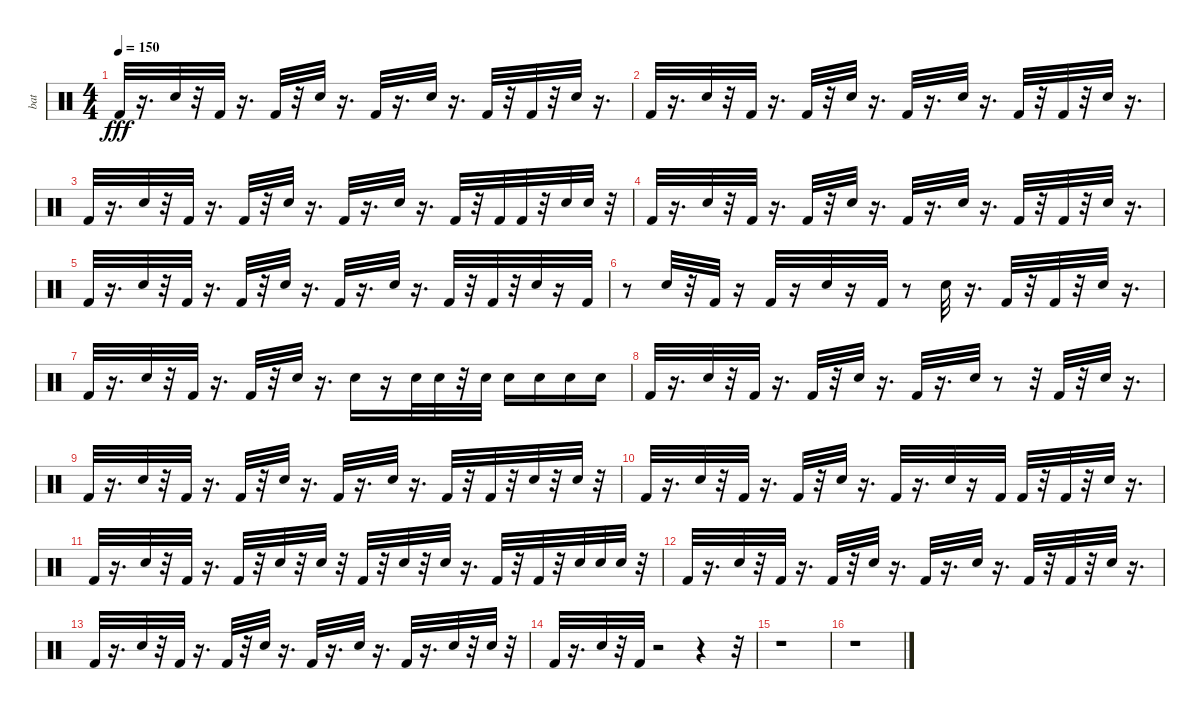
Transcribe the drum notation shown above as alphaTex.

\track ("bat" "bat") {instrument percussion}
\staff {score}
\articulation defaults
\ts (4 4)
\tempo 150
\clef neutral
\ks c "Kick (hit) 2".32{dy fff}
r.16{d} "Electric Snare (hit)".32 r.32 "Kick (hit) 2".32 r.16{d} "Kick (hit) 2".32 r.32 "Electric Snare (hit)".32 r.16{d} "Kick (hit) 2".32 r.16{d} "Electric Snare (hit)".32 r.16{d} "Kick (hit) 2".32 r.32 "Kick (hit) 2".32 r.32 "Electric Snare (hit)".32 r.16{d} |
"Kick (hit) 2".32 r.16{d} "Electric Snare (hit)".32 r.32 "Kick (hit) 2".32 r.16{d} "Kick (hit) 2".32 r.32 "Electric Snare (hit)".32 r.16{d} "Kick (hit) 2".32 r.16{d} "Electric Snare (hit)".32 r.16{d} "Kick (hit) 2".32 r.32 "Kick (hit) 2".32 r.32 "Electric Snare (hit)".32 r.16{d} |
"Kick (hit) 2".32 r.16{d} "Electric Snare (hit)".32 r.32 "Kick (hit) 2".32 r.16{d} "Kick (hit) 2".32 r.32 "Electric Snare (hit)".32 r.16{d} "Kick (hit) 2".32 r.16{d} "Electric Snare (hit)".32 r.16{d} "Kick (hit) 2".32 r.32 "Kick (hit) 2".32 "Kick (hit) 2".32 r.32 "Electric Snare (hit)".32 "Electric Snare (hit)".32 r.32 |
"Kick (hit) 2".32 r.16{d} "Electric Snare (hit)".32 r.32 "Kick (hit) 2".32 r.16{d} "Kick (hit) 2".32 r.32 "Electric Snare (hit)".32 r.16{d} "Kick (hit) 2".32 r.16{d} "Electric Snare (hit)".32 r.16{d} "Kick (hit) 2".32 r.32 "Kick (hit) 2".32 r.32 "Electric Snare (hit)".32 r.16{d} |
"Kick (hit) 2".32 r.16{d} "Electric Snare (hit)".32 r.32 "Kick (hit) 2".32 r.16{d} "Kick (hit) 2".32 r.32 "Electric Snare (hit)".32 r.16{d} "Kick (hit) 2".32 r.16{d} "Electric Snare (hit)".32 r.16{d} "Kick (hit) 2".32 r.32 "Kick (hit) 2".32 r.32 "Electric Snare (hit)".32 r.16 "Kick (hit) 2".32 |
r.8 "Electric Snare (hit)".32 r.32 "Kick (hit) 2".32 r.16 "Kick (hit) 2".32 r.16 "Electric Snare (hit)".32 r.16 "Kick (hit) 2".32 r.8 "Electric Snare (hit)".32 r.16{d} "Kick (hit) 2".32 r.32 "Kick (hit) 2".32 r.32 "Electric Snare (hit)".32 r.16{d} |
"Kick (hit) 2".32 r.16{d} "Electric Snare (hit)".32 r.32 "Kick (hit) 2".32 r.16{d} "Kick (hit) 2".32 r.32 "Electric Snare (hit)".32 r.16{d} "Electric Snare (hit)".16 r.16 "Electric Snare (hit)".32 "Electric Snare (hit)".32 r.32 "Electric Snare (hit)".32 "Electric Snare (hit)".16 "Electric Snare (hit)".16 "Electric Snare (hit)".16 "Electric Snare (hit)".16 |
"Kick (hit) 2".32 r.16{d} "Electric Snare (hit)".32 r.32 "Kick (hit) 2".32 r.16{d} "Kick (hit) 2".32 r.32 "Electric Snare (hit)".32 r.16{d} "Kick (hit) 2".32 r.16{d} "Electric Snare (hit)".32 r.8 r.32 "Kick (hit) 2".32 r.32 "Electric Snare (hit)".32 r.16{d} |
"Kick (hit) 2".32 r.16{d} "Electric Snare (hit)".32 r.32 "Kick (hit) 2".32 r.16{d} "Kick (hit) 2".32 r.32 "Electric Snare (hit)".32 r.16{d} "Kick (hit) 2".32 r.16{d} "Electric Snare (hit)".32 r.16{d} "Kick (hit) 2".32 r.32 "Kick (hit) 2".32 r.32 "Electric Snare (hit)".32 r.32 "Electric Snare (hit)".32 r.32 |
"Kick (hit) 2".32 r.16{d} "Electric Snare (hit)".32 r.32 "Kick (hit) 2".32 r.16{d} "Kick (hit) 2".32 r.32 "Electric Snare (hit)".32 r.16{d} "Kick (hit) 2".32 r.16{d} "Electric Snare (hit)".32 r.16 "Kick (hit) 2".32 "Kick (hit) 2".32 r.32 "Kick (hit) 2".32 r.32 "Electric Snare (hit)".32 r.16{d} |
"Kick (hit) 2".32 r.16{d} "Electric Snare (hit)".32 r.32 "Kick (hit) 2".32 r.16{d} "Kick (hit) 2".32 r.32 "Electric Snare (hit)".32 r.32 "Electric Snare (hit)".32 r.32 "Kick (hit) 2".32 r.32 "Electric Snare (hit)".32 r.32 "Electric Snare (hit)".32 r.16{d} "Kick (hit) 2".32 r.32 "Kick (hit) 2".32 r.32 "Electric Snare (hit)".32 "Electric Snare (hit)".32 "Electric Snare (hit)".32 r.32 |
"Kick (hit) 2".32 r.16{d} "Electric Snare (hit)".32 r.32 "Kick (hit) 2".32 r.16{d} "Kick (hit) 2".32 r.32 "Electric Snare (hit)".32 r.16{d} "Kick (hit) 2".32 r.16{d} "Electric Snare (hit)".32 r.16{d} "Kick (hit) 2".32 r.32 "Kick (hit) 2".32 r.32 "Electric Snare (hit)".32 r.16{d} |
"Kick (hit) 2".32 r.16{d} "Electric Snare (hit)".32 r.32 "Kick (hit) 2".32 r.16{d} "Kick (hit) 2".32 r.32 "Electric Snare (hit)".32 r.16{d} "Kick (hit) 2".32 r.16{d} "Electric Snare (hit)".32 r.16{d} "Kick (hit) 2".32 r.16{d} "Electric Snare (hit)".32 r.32 "Electric Snare (hit)".32 r.32 |
"Kick (hit) 2".32 r.16{d} "Electric Snare (hit)".32 r.32 "Kick (hit) 2".32 r.2 r.4 r.32 |
r.1 |
r.1
